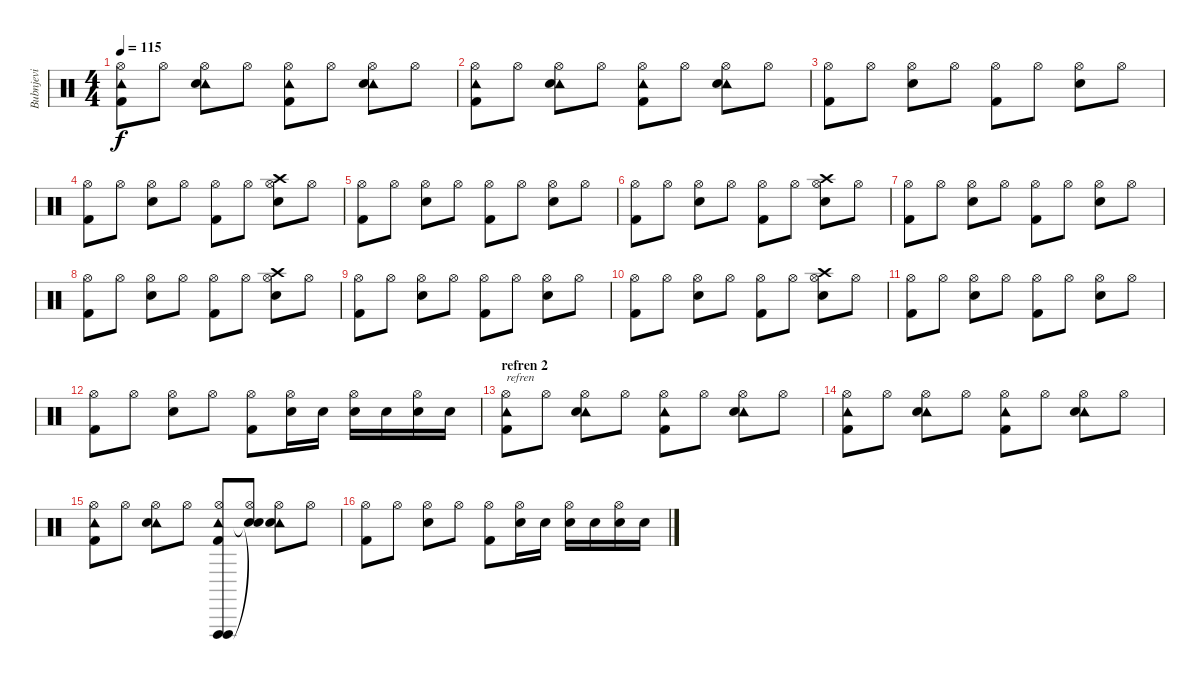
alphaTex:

\track ("Bubnjevi" "Bubnjevi") {instrument percussion}
\staff {score}
\articulation defaults
\ts (4 4)
\tempo 115
\clef neutral
\ks c
("Hi-Hat (open)" "Tambourine (hit)" "Kick (hit) 2").8{dy f} "Hi-Hat (open)".8 ("Hi-Hat (open)" "Tambourine (hit)" "Electric Snare (hit)").8 "Hi-Hat (open)".8 ("Hi-Hat (open)" "Tambourine (hit)" "Kick (hit) 2").8 "Hi-Hat (open)".8 ("Hi-Hat (open)" "Tambourine (hit)" "Electric Snare (hit)").8 "Hi-Hat (open)".8 |
("Hi-Hat (open)" "Tambourine (hit)" "Kick (hit) 2").8 "Hi-Hat (open)".8 ("Hi-Hat (open)" "Tambourine (hit)" "Electric Snare (hit)").8 "Hi-Hat (open)".8 ("Hi-Hat (open)" "Tambourine (hit)" "Kick (hit) 2").8 "Hi-Hat (open)".8 ("Hi-Hat (open)" "Tambourine (hit)" "Electric Snare (hit)").8 "Hi-Hat (open)".8 |
("Hi-Hat (open)" "Kick (hit) 2").8 "Hi-Hat (open)".8 ("Hi-Hat (open)" "Electric Snare (hit)").8 "Hi-Hat (open)".8 ("Hi-Hat (open)" "Kick (hit) 2").8 "Hi-Hat (open)".8 ("Hi-Hat (open)" "Electric Snare (hit)").8 "Hi-Hat (open)".8 |
("Hi-Hat (open)" "Kick (hit) 2").8 "Hi-Hat (open)".8 ("Hi-Hat (open)" "Electric Snare (hit)").8 "Hi-Hat (open)".8 ("Hi-Hat (open)" "Kick (hit) 2").8 "Hi-Hat (open)".8 ("Hi-Hat (open)" "Crash high (hit)" "Electric Snare (hit)").8 "Hi-Hat (open)".8 |
("Hi-Hat (open)" "Kick (hit) 2").8 "Hi-Hat (open)".8 ("Hi-Hat (open)" "Electric Snare (hit)").8 "Hi-Hat (open)".8 ("Hi-Hat (open)" "Kick (hit) 2").8 "Hi-Hat (open)".8 ("Hi-Hat (open)" "Electric Snare (hit)").8 "Hi-Hat (open)".8 |
("Hi-Hat (open)" "Kick (hit) 2").8 "Hi-Hat (open)".8 ("Hi-Hat (open)" "Electric Snare (hit)").8 "Hi-Hat (open)".8 ("Hi-Hat (open)" "Kick (hit) 2").8 "Hi-Hat (open)".8 ("Hi-Hat (open)" "Crash high (hit)" "Electric Snare (hit)").8 "Hi-Hat (open)".8 |
("Hi-Hat (open)" "Kick (hit) 2").8 "Hi-Hat (open)".8 ("Hi-Hat (open)" "Electric Snare (hit)").8 "Hi-Hat (open)".8 ("Hi-Hat (open)" "Kick (hit) 2").8 "Hi-Hat (open)".8 ("Hi-Hat (open)" "Electric Snare (hit)").8 "Hi-Hat (open)".8 |
("Hi-Hat (open)" "Kick (hit) 2").8 "Hi-Hat (open)".8 ("Hi-Hat (open)" "Electric Snare (hit)").8 "Hi-Hat (open)".8 ("Hi-Hat (open)" "Kick (hit) 2").8 "Hi-Hat (open)".8 ("Hi-Hat (open)" "Crash high (hit)" "Electric Snare (hit)").8 "Hi-Hat (open)".8 |
("Hi-Hat (open)" "Kick (hit) 2").8 "Hi-Hat (open)".8 ("Hi-Hat (open)" "Electric Snare (hit)").8 "Hi-Hat (open)".8 ("Hi-Hat (open)" "Kick (hit) 2").8 "Hi-Hat (open)".8 ("Hi-Hat (open)" "Electric Snare (hit)").8 "Hi-Hat (open)".8 |
("Hi-Hat (open)" "Kick (hit) 2").8 "Hi-Hat (open)".8 ("Hi-Hat (open)" "Electric Snare (hit)").8 "Hi-Hat (open)".8 ("Hi-Hat (open)" "Kick (hit) 2").8 "Hi-Hat (open)".8 ("Hi-Hat (open)" "Crash high (hit)" "Electric Snare (hit)").8 "Hi-Hat (open)".8 |
("Hi-Hat (open)" "Kick (hit) 2").8 "Hi-Hat (open)".8 ("Hi-Hat (open)" "Electric Snare (hit)").8 "Hi-Hat (open)".8 ("Hi-Hat (open)" "Kick (hit) 2").8 "Hi-Hat (open)".8 ("Hi-Hat (open)" "Electric Snare (hit)").8 "Hi-Hat (open)".8 |
("Hi-Hat (open)" "Kick (hit) 2").8 "Hi-Hat (open)".8 ("Hi-Hat (open)" "Electric Snare (hit)").8 "Hi-Hat (open)".8 ("Hi-Hat (open)" "Kick (hit) 2").8 ("Hi-Hat (open)" "Electric Snare (hit)").16 "Electric Snare (hit)".16 ("Hi-Hat (open)" "Electric Snare (hit)").16 "Electric Snare (hit)".16 ("Hi-Hat (open)" "Electric Snare (hit)").16 "Electric Snare (hit)".16 |
\section ("" "refren 2")
("Hi-Hat (open)" "Tambourine (hit)" "Kick (hit) 2").8{txt "refren"} "Hi-Hat (open)".8 ("Hi-Hat (open)" "Tambourine (hit)" "Electric Snare (hit)").8 "Hi-Hat (open)".8 ("Hi-Hat (open)" "Tambourine (hit)" "Kick (hit) 2").8 "Hi-Hat (open)".8 ("Hi-Hat (open)" "Tambourine (hit)" "Electric Snare (hit)").8 "Hi-Hat (open)".8 |
("Hi-Hat (open)" "Tambourine (hit)" "Kick (hit) 2").8 "Hi-Hat (open)".8 ("Hi-Hat (open)" "Tambourine (hit)" "Electric Snare (hit)").8 "Hi-Hat (open)".8 ("Hi-Hat (open)" "Tambourine (hit)" "Kick (hit) 2").8 "Hi-Hat (open)".8 ("Hi-Hat (open)" "Tambourine (hit)" "Electric Snare (hit)").8 "Hi-Hat (open)".8 |
("Hi-Hat (open)" "Tambourine (hit)" "Kick (hit) 2").8 "Hi-Hat (open)".8 ("Hi-Hat (open)" "Tambourine (hit)" "Electric Snare (hit)").8 "Hi-Hat (open)".8 ("Hi-Hat (open)" "Tambourine (hit)" "Vibraslap (hit)" "Vibraslap (hit)" "Kick (hit) 2").8 ("Hi-Hat (open)" "Snare (hit)"{t} "Snare (hit)"{t}).8 ("Hi-Hat (open)" "Tambourine (hit)" "Electric Snare (hit)").8 "Hi-Hat (open)".8 |
("Hi-Hat (open)" "Kick (hit) 2").8 "Hi-Hat (open)".8 ("Hi-Hat (open)" "Electric Snare (hit)").8 "Hi-Hat (open)".8 ("Hi-Hat (open)" "Kick (hit) 2").8 ("Hi-Hat (open)" "Electric Snare (hit)").16 "Electric Snare (hit)".16 ("Hi-Hat (open)" "Electric Snare (hit)").16 "Electric Snare (hit)".16 ("Hi-Hat (open)" "Electric Snare (hit)").16 "Electric Snare (hit)".16
